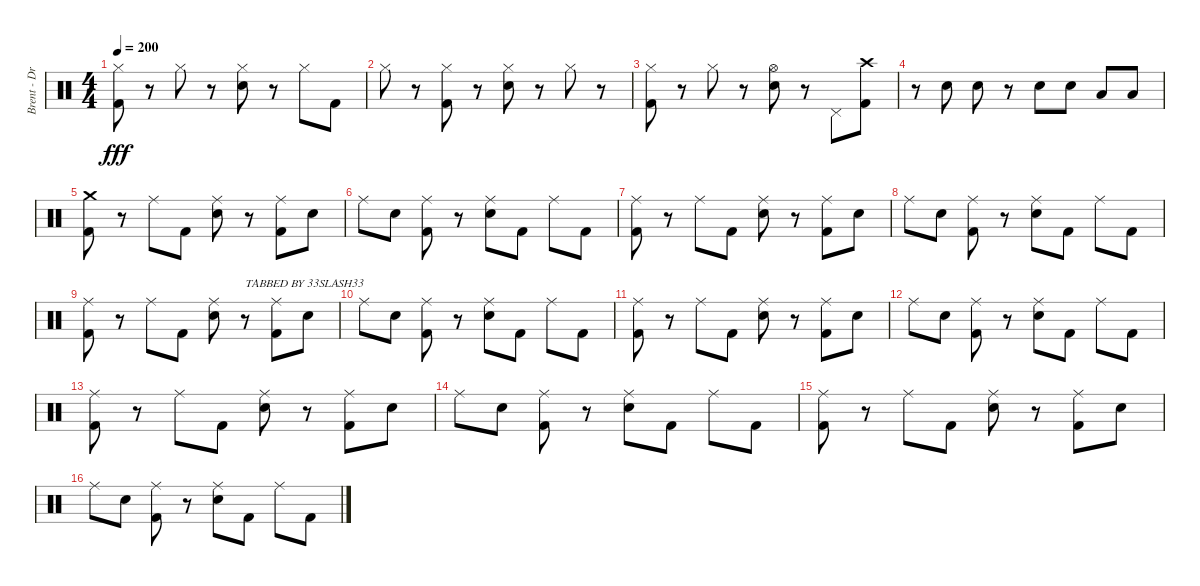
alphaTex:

\track ("Brent - Drums" "Brent - Dr") {instrument percussion}
\staff {score}
\articulation defaults
\ts (4 4)
\tempo 200
\clef neutral
\ks c
("Hi-Hat (closed)" "Kick (hit) 2").8{dy fff} r.8 "Hi-Hat (closed)".8 r.8 ("Hi-Hat (closed)" "Snare (hit) 2").8 r.8 "Hi-Hat (closed)".8 "Kick (hit) 2".8 |
"Hi-Hat (closed)".8 r.8 ("Hi-Hat (closed)" "Kick (hit) 2").8 r.8 ("Hi-Hat (closed)" "Snare (hit) 2").8 r.8 "Hi-Hat (closed)".8 r.8 |
("Hi-Hat (closed)" "Kick (hit) 2").8 r.8 "Hi-Hat (closed)".8 r.8 ("Hi-Hat (open)" "Snare (hit) 2").8 r.8 "Pedal Hi-Hat (hit)".8 ("Crash high (hit)" "Kick (hit) 2").8 |
r.8 "Snare (hit) 2".8 "Snare (hit) 2".8 r.8 "Snare (hit) 2".8 "Snare (hit) 2".8 "Low Tom (hit)".8 "Low Tom (hit)".8 |
("Crash medium (hit)" "Kick (hit) 2").8 r.8 "Ride (middle)".8 "Kick (hit) 2".8 ("Ride (middle)" "Snare (hit) 2").8 r.8 ("Ride (middle)" "Kick (hit) 2").8 "Snare (hit) 2".8 |
"Ride (middle)".8 "Snare (hit) 2".8 ("Ride (middle)" "Kick (hit) 2").8 r.8 ("Ride (middle)" "Snare (hit) 2").8 "Kick (hit) 2".8 "Ride (middle)".8 "Kick (hit) 2".8 |
("Ride (middle)" "Kick (hit) 2").8 r.8 "Ride (middle)".8 "Kick (hit) 2".8 ("Ride (middle)" "Snare (hit) 2").8 r.8 ("Ride (middle)" "Kick (hit) 2").8 "Snare (hit) 2".8 |
"Ride (middle)".8 "Snare (hit) 2".8 ("Ride (middle)" "Kick (hit) 2").8 r.8 ("Ride (middle)" "Snare (hit) 2").8 "Kick (hit) 2".8 "Ride (middle)".8 "Kick (hit) 2".8 |
("Ride (middle)" "Kick (hit) 2").8 r.8 "Ride (middle)".8 "Kick (hit) 2".8 ("Ride (middle)" "Snare (hit) 2").8 r.8{txt "TABBED BY 33SLASH33"} ("Ride (middle)" "Kick (hit) 2").8 "Snare (hit) 2".8 |
"Ride (middle)".8 "Snare (hit) 2".8 ("Ride (middle)" "Kick (hit) 2").8 r.8 ("Ride (middle)" "Snare (hit) 2").8 "Kick (hit) 2".8 "Ride (middle)".8 "Kick (hit) 2".8 |
("Ride (middle)" "Kick (hit) 2").8 r.8 "Ride (middle)".8 "Kick (hit) 2".8 ("Ride (middle)" "Snare (hit) 2").8 r.8 ("Ride (middle)" "Kick (hit) 2").8 "Snare (hit) 2".8 |
"Ride (middle)".8 "Snare (hit) 2".8 ("Ride (middle)" "Kick (hit) 2").8 r.8 ("Ride (middle)" "Snare (hit) 2").8 "Kick (hit) 2".8 "Ride (middle)".8 "Kick (hit) 2".8 |
("Ride (middle)" "Kick (hit) 2").8 r.8 "Ride (middle)".8 "Kick (hit) 2".8 ("Ride (middle)" "Snare (hit) 2").8 r.8 ("Ride (middle)" "Kick (hit) 2").8 "Snare (hit) 2".8 |
"Ride (middle)".8 "Snare (hit) 2".8 ("Ride (middle)" "Kick (hit) 2").8 r.8 ("Ride (middle)" "Snare (hit) 2").8 "Kick (hit) 2".8 "Ride (middle)".8 "Kick (hit) 2".8 |
("Ride (middle)" "Kick (hit) 2").8 r.8 "Ride (middle)".8 "Kick (hit) 2".8 ("Ride (middle)" "Snare (hit) 2").8 r.8 ("Ride (middle)" "Kick (hit) 2").8 "Snare (hit) 2".8 |
"Ride (middle)".8 "Snare (hit) 2".8 ("Ride (middle)" "Kick (hit) 2").8 r.8 ("Ride (middle)" "Snare (hit) 2").8 "Kick (hit) 2".8 "Ride (middle)".8 "Kick (hit) 2".8
